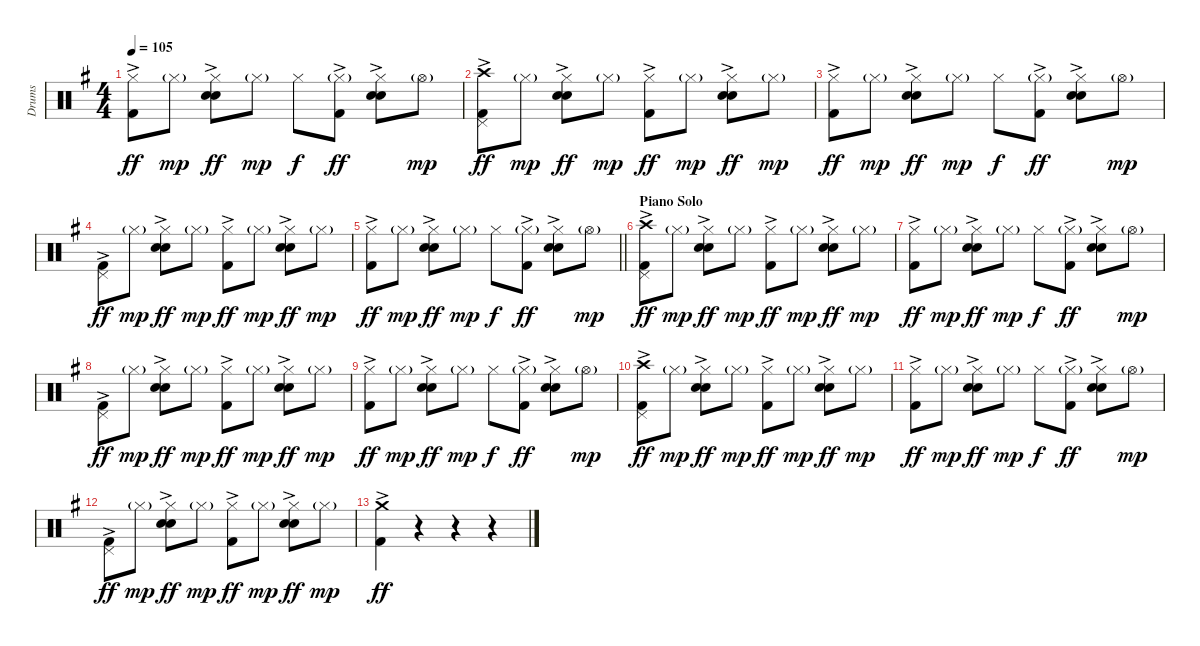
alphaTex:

\track ("Drums" "Drums") {instrument percussion}
\staff {score}
\articulation defaults
\ts (4 4)
\tempo 105
\clef neutral
\ks g
("Hi-Hat (closed)" "Kick (hit) 2"{ac}).8{dy ff} "Hi-Hat (closed)"{g}.8{dy mp} ("Hi-Hat (closed)" "Electric Snare (hit)"{ac} "Snare (hit) 2").8{dy ff} "Hi-Hat (closed)"{g}.8{dy mp} "Hi-Hat (closed)".8{dy f} ("Hi-Hat (closed)"{g} "Kick (hit) 2"{ac}).8{dy ff} ("Hi-Hat (closed)" "Electric Snare (hit)"{ac} "Snare (hit) 2").8 "Hi-Hat (open)"{g}.8{dy mp} |
("Pedal Hi-Hat (hit)" "Crash high (hit)" "Kick (hit) 2"{ac}).8{dy ff} "Hi-Hat (closed)"{g}.8{dy mp} ("Hi-Hat (closed)" "Electric Snare (hit)"{ac} "Snare (hit) 2").8{dy ff} "Hi-Hat (closed)"{g}.8{dy mp} ("Hi-Hat (closed)" "Kick (hit) 2"{ac}).8{dy ff} "Hi-Hat (closed)"{g}.8{dy mp} ("Hi-Hat (closed)" "Electric Snare (hit)"{ac} "Snare (hit) 2").8{dy ff} "Hi-Hat (closed)"{g}.8{dy mp} |
("Hi-Hat (closed)" "Kick (hit) 2"{ac}).8{dy ff} "Hi-Hat (closed)"{g}.8{dy mp} ("Hi-Hat (closed)" "Electric Snare (hit)"{ac} "Snare (hit) 2").8{dy ff} "Hi-Hat (closed)"{g}.8{dy mp} "Hi-Hat (closed)".8{dy f} ("Hi-Hat (closed)"{g} "Kick (hit) 2"{ac}).8{dy ff} ("Hi-Hat (closed)" "Electric Snare (hit)"{ac} "Snare (hit) 2").8 "Hi-Hat (open)"{g}.8{dy mp} |
("Pedal Hi-Hat (hit)" "Kick (hit) 2"{ac}).8{dy ff} "Hi-Hat (closed)"{g}.8{dy mp} ("Hi-Hat (closed)" "Electric Snare (hit)"{ac} "Snare (hit) 2").8{dy ff} "Hi-Hat (closed)"{g}.8{dy mp} ("Hi-Hat (closed)" "Kick (hit) 2"{ac}).8{dy ff} "Hi-Hat (closed)"{g}.8{dy mp} ("Hi-Hat (closed)" "Electric Snare (hit)"{ac} "Snare (hit) 2").8{dy ff} "Hi-Hat (closed)"{g}.8{dy mp} |
\barLineRight lightlight
("Hi-Hat (closed)" "Kick (hit) 2"{ac}).8{dy ff} "Hi-Hat (closed)"{g}.8{dy mp} ("Hi-Hat (closed)" "Electric Snare (hit)"{ac} "Snare (hit) 2").8{dy ff} "Hi-Hat (closed)"{g}.8{dy mp} "Hi-Hat (closed)".8{dy f} ("Hi-Hat (closed)"{g} "Kick (hit) 2"{ac}).8{dy ff} ("Hi-Hat (closed)" "Electric Snare (hit)"{ac} "Snare (hit) 2").8 "Hi-Hat (open)"{g}.8{dy mp} |
\section ("" "Piano Solo")
("Pedal Hi-Hat (hit)" "Crash high (hit)" "Kick (hit) 2"{ac}).8{dy ff} "Hi-Hat (closed)"{g}.8{dy mp} ("Hi-Hat (closed)" "Electric Snare (hit)"{ac} "Snare (hit) 2").8{dy ff} "Hi-Hat (closed)"{g}.8{dy mp} ("Hi-Hat (closed)" "Kick (hit) 2"{ac}).8{dy ff} "Hi-Hat (closed)"{g}.8{dy mp} ("Hi-Hat (closed)" "Electric Snare (hit)"{ac} "Snare (hit) 2").8{dy ff} "Hi-Hat (closed)"{g}.8{dy mp} |
("Hi-Hat (closed)" "Kick (hit) 2"{ac}).8{dy ff} "Hi-Hat (closed)"{g}.8{dy mp} ("Hi-Hat (closed)" "Electric Snare (hit)"{ac} "Snare (hit) 2").8{dy ff} "Hi-Hat (closed)"{g}.8{dy mp} "Hi-Hat (closed)".8{dy f} ("Hi-Hat (closed)"{g} "Kick (hit) 2"{ac}).8{dy ff} ("Hi-Hat (closed)" "Electric Snare (hit)"{ac} "Snare (hit) 2").8 "Hi-Hat (open)"{g}.8{dy mp} |
("Pedal Hi-Hat (hit)" "Kick (hit) 2"{ac}).8{dy ff} "Hi-Hat (closed)"{g}.8{dy mp} ("Hi-Hat (closed)" "Electric Snare (hit)"{ac} "Snare (hit) 2").8{dy ff} "Hi-Hat (closed)"{g}.8{dy mp} ("Hi-Hat (closed)" "Kick (hit) 2"{ac}).8{dy ff} "Hi-Hat (closed)"{g}.8{dy mp} ("Hi-Hat (closed)" "Electric Snare (hit)"{ac} "Snare (hit) 2").8{dy ff} "Hi-Hat (closed)"{g}.8{dy mp} |
("Hi-Hat (closed)" "Kick (hit) 2"{ac}).8{dy ff} "Hi-Hat (closed)"{g}.8{dy mp} ("Hi-Hat (closed)" "Electric Snare (hit)"{ac} "Snare (hit) 2").8{dy ff} "Hi-Hat (closed)"{g}.8{dy mp} "Hi-Hat (closed)".8{dy f} ("Hi-Hat (closed)"{g} "Kick (hit) 2"{ac}).8{dy ff} ("Hi-Hat (closed)" "Electric Snare (hit)"{ac} "Snare (hit) 2").8 "Hi-Hat (open)"{g}.8{dy mp} |
("Pedal Hi-Hat (hit)" "Crash high (hit)" "Kick (hit) 2"{ac}).8{dy ff} "Hi-Hat (closed)"{g}.8{dy mp} ("Hi-Hat (closed)" "Electric Snare (hit)"{ac} "Snare (hit) 2").8{dy ff} "Hi-Hat (closed)"{g}.8{dy mp} ("Hi-Hat (closed)" "Kick (hit) 2"{ac}).8{dy ff} "Hi-Hat (closed)"{g}.8{dy mp} ("Hi-Hat (closed)" "Electric Snare (hit)"{ac} "Snare (hit) 2").8{dy ff} "Hi-Hat (closed)"{g}.8{dy mp} |
("Hi-Hat (closed)" "Kick (hit) 2"{ac}).8{dy ff} "Hi-Hat (closed)"{g}.8{dy mp} ("Hi-Hat (closed)" "Electric Snare (hit)"{ac} "Snare (hit) 2").8{dy ff} "Hi-Hat (closed)"{g}.8{dy mp} "Hi-Hat (closed)".8{dy f} ("Hi-Hat (closed)"{g} "Kick (hit) 2"{ac}).8{dy ff} ("Hi-Hat (closed)" "Electric Snare (hit)"{ac} "Snare (hit) 2").8 "Hi-Hat (open)"{g}.8{dy mp} |
("Pedal Hi-Hat (hit)" "Kick (hit) 2"{ac}).8{dy ff} "Hi-Hat (closed)"{g}.8{dy mp} ("Hi-Hat (closed)" "Electric Snare (hit)"{ac} "Snare (hit) 2").8{dy ff} "Hi-Hat (closed)"{g}.8{dy mp} ("Hi-Hat (closed)" "Kick (hit) 2"{ac}).8{dy ff} "Hi-Hat (closed)"{g}.8{dy mp} ("Hi-Hat (closed)" "Electric Snare (hit)"{ac} "Snare (hit) 2").8{dy ff} "Hi-Hat (closed)"{g}.8{dy mp} |
("Crash medium (hit)" "Kick (hit) 2"{ac}).4{dy ff} r.4 r.4 r.4
